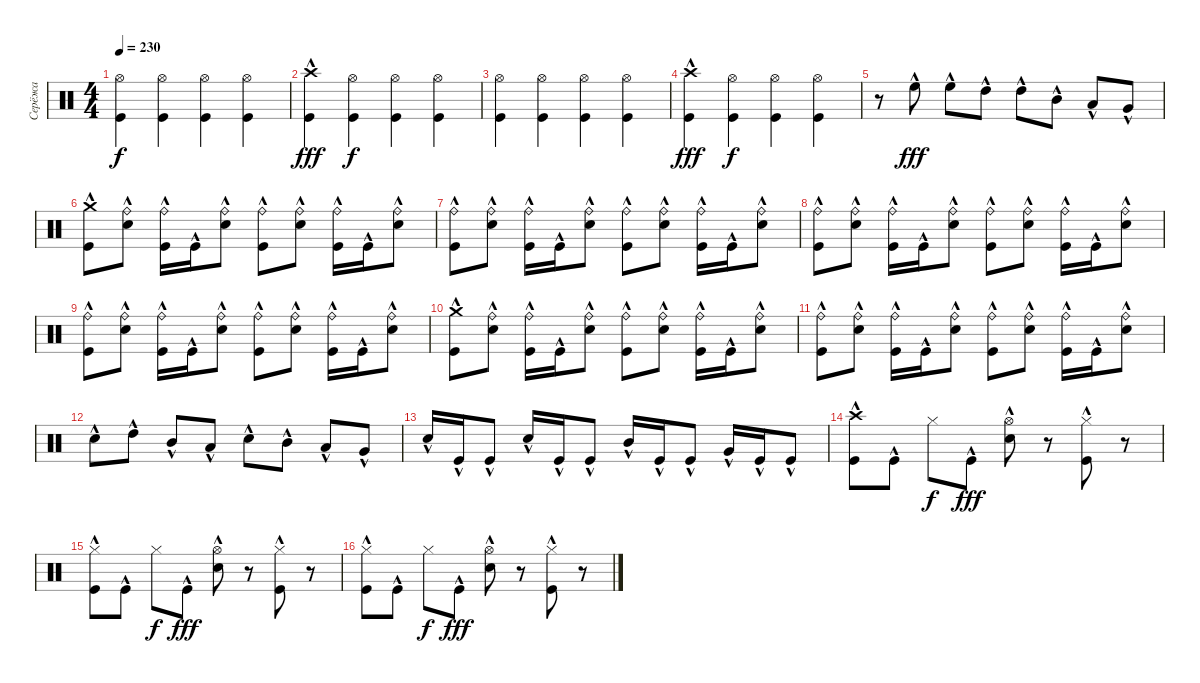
\track ("Серёжа" "Серёжа") {instrument percussion}
\staff {score}
\articulation defaults
\ts (4 4)
\tempo 230
\clef neutral
\ks c
("Hi-Hat (open)" "Kick (hit)").4{dy f} ("Hi-Hat (open)" "Kick (hit)").4 ("Hi-Hat (open)" "Kick (hit)").4 ("Hi-Hat (open)" "Kick (hit)").4 |
("Crash high (hit)"{hac} "Kick (hit)"{hac}).4{dy fff} ("Hi-Hat (open)" "Kick (hit)").4{dy f} ("Hi-Hat (open)" "Kick (hit)").4 ("Hi-Hat (open)" "Kick (hit)").4 |
("Hi-Hat (open)" "Kick (hit)").4 ("Hi-Hat (open)" "Kick (hit)").4 ("Hi-Hat (open)" "Kick (hit)").4 ("Hi-Hat (open)" "Kick (hit)").4 |
("Crash high (hit)"{hac} "Kick (hit)"{hac}).4{dy fff} ("Hi-Hat (open)" "Kick (hit)").4{dy f} ("Hi-Hat (open)" "Kick (hit)").4 ("Hi-Hat (open)" "Kick (hit)").4 |
r.8 "High Floor Tom (hit)"{hac}.8{dy fff} "High Floor Tom (hit)"{hac}.8 "High Tom (hit)"{hac}.8 "High Tom (hit)"{hac}.8 "Mid Tom (hit)"{hac}.8 "Low Tom (hit)"{hac}.8 "Very Low Tom (hit)"{hac}.8 |
("Crash medium (hit)"{hac} "Kick (hit)"{hac}).8 ("Ride (bell)" "Snare (hit) 2"{hac}).8 ("Ride (bell)" "Kick (hit)"{hac}).16 "Kick (hit)"{hac}.16 ("Ride (bell)" "Snare (hit) 2"{hac}).8 ("Ride (bell)" "Kick (hit)"{hac}).8 ("Ride (bell)" "Snare (hit) 2"{hac}).8 ("Ride (bell)" "Kick (hit)"{hac}).16 "Kick (hit)"{hac}.16 ("Ride (bell)" "Snare (hit) 2"{hac}).8 |
("Ride (bell)" "Kick (hit)"{hac}).8 ("Ride (bell)" "Snare (hit) 2"{hac}).8 ("Ride (bell)" "Kick (hit)"{hac}).16 "Kick (hit)"{hac}.16 ("Ride (bell)" "Snare (hit) 2"{hac}).8 ("Ride (bell)" "Kick (hit)"{hac}).8 ("Ride (bell)" "Snare (hit) 2"{hac}).8 ("Ride (bell)" "Kick (hit)"{hac}).16 "Kick (hit)"{hac}.16 ("Ride (bell)" "Snare (hit) 2"{hac}).8 |
("Ride (bell)" "Kick (hit)"{hac}).8 ("Ride (bell)" "Snare (hit) 2"{hac}).8 ("Ride (bell)" "Kick (hit)"{hac}).16 "Kick (hit)"{hac}.16 ("Ride (bell)" "Snare (hit) 2"{hac}).8 ("Ride (bell)" "Kick (hit)"{hac}).8 ("Ride (bell)" "Snare (hit) 2"{hac}).8 ("Ride (bell)" "Kick (hit)"{hac}).16 "Kick (hit)"{hac}.16 ("Ride (bell)" "Snare (hit) 2"{hac}).8 |
("Ride (bell)" "Kick (hit)"{hac}).8 ("Ride (bell)" "Snare (hit) 2"{hac}).8 ("Ride (bell)" "Kick (hit)"{hac}).16 "Kick (hit)"{hac}.16 ("Ride (bell)" "Snare (hit) 2"{hac}).8 ("Ride (bell)" "Kick (hit)"{hac}).8 ("Ride (bell)" "Snare (hit) 2"{hac}).8 ("Ride (bell)" "Kick (hit)"{hac}).16 "Kick (hit)"{hac}.16 ("Ride (bell)" "Snare (hit) 2"{hac}).8 |
("Crash medium (hit)"{hac} "Kick (hit)"{hac}).8 ("Ride (bell)" "Snare (hit) 2"{hac}).8 ("Ride (bell)" "Kick (hit)"{hac}).16 "Kick (hit)"{hac}.16 ("Ride (bell)" "Snare (hit) 2"{hac}).8 ("Ride (bell)" "Kick (hit)"{hac}).8 ("Ride (bell)" "Snare (hit) 2"{hac}).8 ("Ride (bell)" "Kick (hit)"{hac}).16 "Kick (hit)"{hac}.16 ("Ride (bell)" "Snare (hit) 2"{hac}).8 |
("Ride (bell)" "Kick (hit)"{hac}).8 ("Ride (bell)" "Snare (hit) 2"{hac}).8 ("Ride (bell)" "Kick (hit)"{hac}).16 "Kick (hit)"{hac}.16 ("Ride (bell)" "Snare (hit) 2"{hac}).8 ("Ride (bell)" "Kick (hit)"{hac}).8 ("Ride (bell)" "Snare (hit) 2"{hac}).8 ("Ride (bell)" "Kick (hit)"{hac}).16 "Kick (hit)"{hac}.16 ("Ride (bell)" "Snare (hit) 2"{hac}).8 |
"Snare (hit) 2"{hac}.8 "High Tom (hit)"{hac}.8 "Mid Tom (hit)"{hac}.8 "Low Tom (hit)"{hac}.8 "Snare (hit) 2"{hac}.8 "Mid Tom (hit)"{hac}.8 "Low Tom (hit)"{hac}.8 "Very Low Tom (hit)"{hac}.8 |
"Snare (hit) 2"{hac}.16 "Kick (hit)"{hac}.16 "Kick (hit)"{hac}.8 "Snare (hit) 2"{hac}.16 "Kick (hit)"{hac}.16 "Kick (hit)"{hac}.8 "Mid Tom (hit)"{hac}.16 "Kick (hit)"{hac}.16 "Kick (hit)"{hac}.8 "Very Low Tom (hit)"{hac}.16 "Kick (hit)"{hac}.16 "Kick (hit)"{hac}.8 |
("Crash high (hit)"{hac} "Kick (hit)"{hac}).8 "Kick (hit)"{hac}.8 "Hi-Hat (closed)".8{dy f} "Kick (hit)"{hac}.8{dy fff} ("Hi-Hat (open)" "Snare (hit) 2"{hac}).8 r.8 ("Hi-Hat (closed)" "Kick (hit)"{hac}).8 r.8 |
("Hi-Hat (closed)" "Kick (hit)"{hac}).8 "Kick (hit)"{hac}.8 "Hi-Hat (closed)".8{dy f} "Kick (hit)"{hac}.8{dy fff} ("Hi-Hat (open)" "Snare (hit) 2"{hac}).8 r.8 ("Hi-Hat (closed)" "Kick (hit)"{hac}).8 r.8 |
("Hi-Hat (closed)" "Kick (hit)"{hac}).8 "Kick (hit)"{hac}.8 "Hi-Hat (closed)".8{dy f} "Kick (hit)"{hac}.8{dy fff} ("Hi-Hat (open)" "Snare (hit) 2"{hac}).8 r.8 ("Hi-Hat (closed)" "Kick (hit)"{hac}).8 r.8
